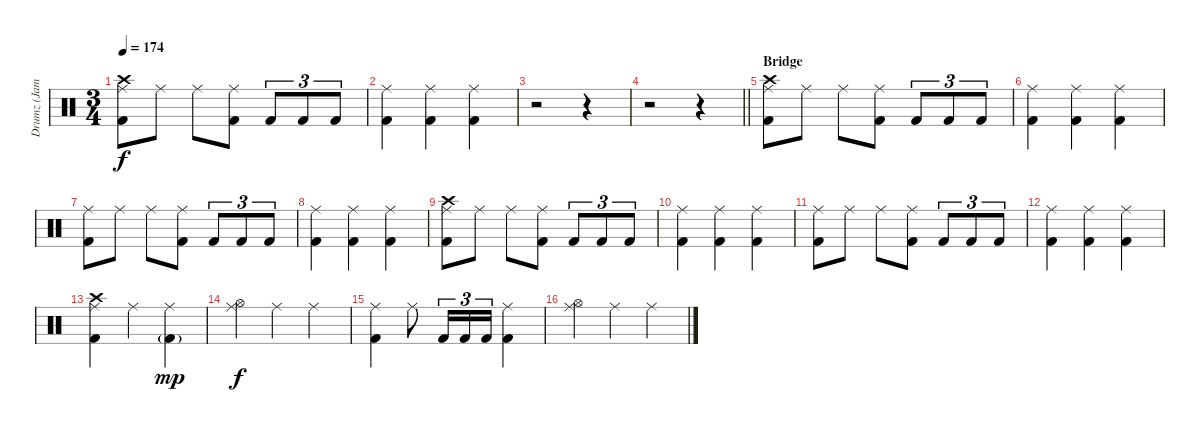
\track ("Drumz (James Kottak)" "Drumz (Jam") {instrument percussion}
\staff {score}
\articulation defaults
\ts (3 4)
\tempo 174
\clef neutral
\ks c
("Ride (middle)" "Crash high (hit)" "Kick (hit) 2").8{dy f} "Ride (middle)".8 "Ride (middle)".8 ("Ride (middle)" "Kick (hit) 2").8 "Kick (hit) 2".8{tu (3 2)} "Kick (hit) 2".8{tu (3 2)} "Kick (hit) 2".8{tu (3 2)} |
("Ride (middle)" "Kick (hit) 2").4 ("Kick (hit) 2" "Ride (middle)").4 ("Ride (middle)" "Kick (hit) 2").4 |
r.2 r.4 |
\barLineRight lightlight
r.2 r.4 |
\section ("" "Bridge")
("Ride (middle)" "Crash high (hit)" "Kick (hit) 2").8 "Ride (middle)".8 "Ride (middle)".8 ("Ride (middle)" "Kick (hit) 2").8 "Kick (hit) 2".8{tu (3 2)} "Kick (hit) 2".8{tu (3 2)} "Kick (hit) 2".8{tu (3 2)} |
("Ride (middle)" "Kick (hit) 2").4 ("Kick (hit) 2" "Ride (middle)").4 ("Ride (middle)" "Kick (hit) 2").4 |
("Ride (middle)" "Kick (hit) 2").8 "Ride (middle)".8 "Ride (middle)".8 ("Ride (middle)" "Kick (hit) 2").8 "Kick (hit) 2".8{tu (3 2)} "Kick (hit) 2".8{tu (3 2)} "Kick (hit) 2".8{tu (3 2)} |
("Ride (middle)" "Kick (hit) 2").4 ("Kick (hit) 2" "Ride (middle)").4 ("Ride (middle)" "Kick (hit) 2").4 |
("Ride (middle)" "Crash high (hit)" "Kick (hit) 2").8 "Ride (middle)".8 "Ride (middle)".8 ("Ride (middle)" "Kick (hit) 2").8 "Kick (hit) 2".8{tu (3 2)} "Kick (hit) 2".8{tu (3 2)} "Kick (hit) 2".8{tu (3 2)} |
("Ride (middle)" "Kick (hit) 2").4 ("Kick (hit) 2" "Ride (middle)").4 ("Ride (middle)" "Kick (hit) 2").4 |
("Ride (middle)" "Kick (hit) 2").8 "Ride (middle)".8 "Ride (middle)".8 ("Ride (middle)" "Kick (hit) 2").8 "Kick (hit) 2".8{tu (3 2)} "Kick (hit) 2".8{tu (3 2)} "Kick (hit) 2".8{tu (3 2)} |
("Ride (middle)" "Kick (hit) 2").4 ("Kick (hit) 2" "Ride (middle)").4 ("Ride (middle)" "Kick (hit) 2").4 |
("Ride (middle)" "Crash high (hit)" "Kick (hit) 2").4 "Ride (middle)".4 ("Ride (middle)" "Kick (hit) 2"{g}).4{dy mp} |
("Ride (middle)" "Hi-Hat (open)").4{dy f} "Ride (middle)".4 "Ride (middle)".4 |
("Ride (middle)" "Kick (hit) 2").4 "Ride (middle)".8 "Kick (hit) 2".16{tu (3 2)} "Kick (hit) 2".16{tu (3 2)} "Kick (hit) 2".16{tu (3 2)} ("Ride (middle)" "Kick (hit) 2").4 |
("Ride (middle)" "Hi-Hat (open)").4 "Ride (middle)".4 "Ride (middle)".4
